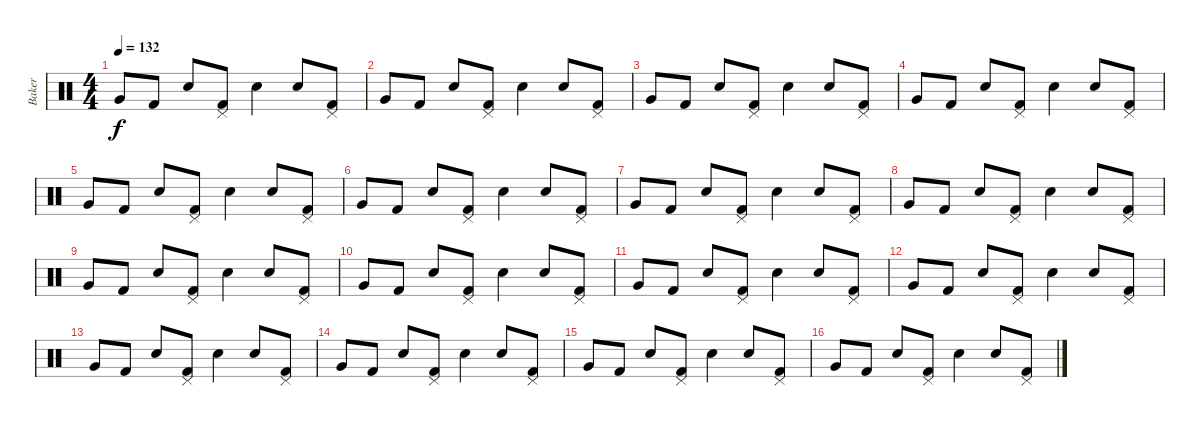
\track ("Baker" "Baker") {instrument percussion}
\staff {score}
\articulation defaults
\ts (4 4)
\tempo 132
\clef neutral
\ks c "Very Low Tom (hit)".8{dy f} "Kick (hit) 2".8 "Snare (hit) 2".8
("Pedal Hi-Hat (hit)" "Kick (hit) 2").8 "Snare (hit) 2".4 "Snare (hit) 2".8 ("Pedal Hi-Hat (hit)" "Kick (hit) 2").8 |
"Very Low Tom (hit)".8 "Kick (hit) 2".8 "Snare (hit) 2".8 ("Pedal Hi-Hat (hit)" "Kick (hit) 2").8 "Snare (hit) 2".4 "Snare (hit) 2".8 ("Pedal Hi-Hat (hit)" "Kick (hit) 2").8 |
"Very Low Tom (hit)".8 "Kick (hit) 2".8 "Snare (hit) 2".8 ("Pedal Hi-Hat (hit)" "Kick (hit) 2").8 "Snare (hit) 2".4 "Snare (hit) 2".8 ("Pedal Hi-Hat (hit)" "Kick (hit) 2").8 |
"Very Low Tom (hit)".8 "Kick (hit) 2".8 "Snare (hit) 2".8 ("Pedal Hi-Hat (hit)" "Kick (hit) 2").8 "Snare (hit) 2".4 "Snare (hit) 2".8 ("Pedal Hi-Hat (hit)" "Kick (hit) 2").8 |
"Very Low Tom (hit)".8 "Kick (hit) 2".8 "Snare (hit) 2".8 ("Pedal Hi-Hat (hit)" "Kick (hit) 2").8 "Snare (hit) 2".4 "Snare (hit) 2".8 ("Pedal Hi-Hat (hit)" "Kick (hit) 2").8 |
"Very Low Tom (hit)".8 "Kick (hit) 2".8 "Snare (hit) 2".8 ("Pedal Hi-Hat (hit)" "Kick (hit) 2").8 "Snare (hit) 2".4 "Snare (hit) 2".8 ("Pedal Hi-Hat (hit)" "Kick (hit) 2").8 |
"Very Low Tom (hit)".8 "Kick (hit) 2".8 "Snare (hit) 2".8 ("Pedal Hi-Hat (hit)" "Kick (hit) 2").8 "Snare (hit) 2".4 "Snare (hit) 2".8 ("Pedal Hi-Hat (hit)" "Kick (hit) 2").8 |
"Very Low Tom (hit)".8 "Kick (hit) 2".8 "Snare (hit) 2".8 ("Pedal Hi-Hat (hit)" "Kick (hit) 2").8 "Snare (hit) 2".4 "Snare (hit) 2".8 ("Pedal Hi-Hat (hit)" "Kick (hit) 2").8 |
"Very Low Tom (hit)".8 "Kick (hit) 2".8 "Snare (hit) 2".8 ("Pedal Hi-Hat (hit)" "Kick (hit) 2").8 "Snare (hit) 2".4 "Snare (hit) 2".8 ("Pedal Hi-Hat (hit)" "Kick (hit) 2").8 |
"Very Low Tom (hit)".8 "Kick (hit) 2".8 "Snare (hit) 2".8 ("Pedal Hi-Hat (hit)" "Kick (hit) 2").8 "Snare (hit) 2".4 "Snare (hit) 2".8 ("Pedal Hi-Hat (hit)" "Kick (hit) 2").8 |
"Very Low Tom (hit)".8 "Kick (hit) 2".8 "Snare (hit) 2".8 ("Pedal Hi-Hat (hit)" "Kick (hit) 2").8 "Snare (hit) 2".4 "Snare (hit) 2".8 ("Pedal Hi-Hat (hit)" "Kick (hit) 2").8 |
"Very Low Tom (hit)".8 "Kick (hit) 2".8 "Snare (hit) 2".8 ("Pedal Hi-Hat (hit)" "Kick (hit) 2").8 "Snare (hit) 2".4 "Snare (hit) 2".8 ("Pedal Hi-Hat (hit)" "Kick (hit) 2").8 |
"Very Low Tom (hit)".8 "Kick (hit) 2".8 "Snare (hit) 2".8 ("Pedal Hi-Hat (hit)" "Kick (hit) 2").8 "Snare (hit) 2".4 "Snare (hit) 2".8 ("Pedal Hi-Hat (hit)" "Kick (hit) 2").8 |
"Very Low Tom (hit)".8 "Kick (hit) 2".8 "Snare (hit) 2".8 ("Pedal Hi-Hat (hit)" "Kick (hit) 2").8 "Snare (hit) 2".4 "Snare (hit) 2".8 ("Pedal Hi-Hat (hit)" "Kick (hit) 2").8 |
"Very Low Tom (hit)".8 "Kick (hit) 2".8 "Snare (hit) 2".8 ("Pedal Hi-Hat (hit)" "Kick (hit) 2").8 "Snare (hit) 2".4 "Snare (hit) 2".8 ("Pedal Hi-Hat (hit)" "Kick (hit) 2").8 |
"Very Low Tom (hit)".8 "Kick (hit) 2".8 "Snare (hit) 2".8 ("Pedal Hi-Hat (hit)" "Kick (hit) 2").8 "Snare (hit) 2".4 "Snare (hit) 2".8 ("Pedal Hi-Hat (hit)" "Kick (hit) 2").8
